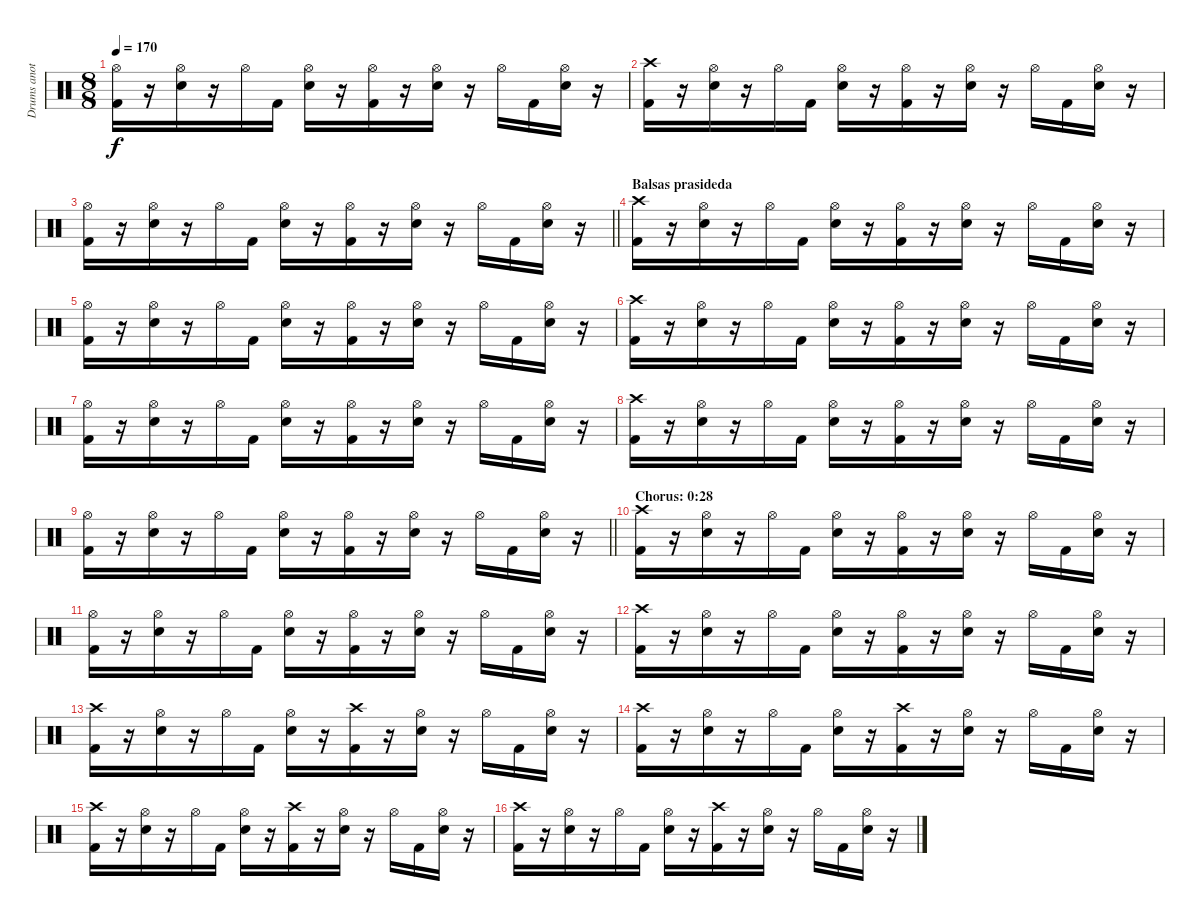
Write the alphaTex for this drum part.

\track ("Drums another version" "Drums anot") {mute instrument percussion}
\staff {score}
\articulation defaults
\ts (8 8)
\tempo 170
\clef neutral
\ks c
("Hi-Hat (open)" "Kick (hit) 2").16{dy f} r.16 ("Hi-Hat (open)" "Snare (hit) 2").16 r.16 "Hi-Hat (open)".16 "Kick (hit) 2".16 ("Hi-Hat (open)" "Snare (hit) 2").16 r.16 ("Hi-Hat (open)" "Kick (hit) 2").16 r.16 ("Hi-Hat (open)" "Snare (hit) 2").16 r.16 "Hi-Hat (open)".16 "Kick (hit) 2".16 ("Hi-Hat (open)" "Snare (hit) 2").16 r.16 |
("Crash high (hit)" "Kick (hit) 2").16 r.16 ("Hi-Hat (open)" "Snare (hit) 2").16 r.16 "Hi-Hat (open)".16 "Kick (hit) 2".16 ("Hi-Hat (open)" "Snare (hit) 2").16 r.16 ("Hi-Hat (open)" "Kick (hit) 2").16 r.16 ("Hi-Hat (open)" "Snare (hit) 2").16 r.16 "Hi-Hat (open)".16 "Kick (hit) 2".16 ("Hi-Hat (open)" "Snare (hit) 2").16 r.16 |
\barLineRight lightlight
("Hi-Hat (open)" "Kick (hit) 2").16 r.16 ("Hi-Hat (open)" "Snare (hit) 2").16 r.16 "Hi-Hat (open)".16 "Kick (hit) 2".16 ("Hi-Hat (open)" "Snare (hit) 2").16 r.16 ("Hi-Hat (open)" "Kick (hit) 2").16 r.16 ("Hi-Hat (open)" "Snare (hit) 2").16 r.16 "Hi-Hat (open)".16 "Kick (hit) 2".16 ("Hi-Hat (open)" "Snare (hit) 2").16 r.16 |
\section ("" "Balsas prasideda")
("Crash high (hit)" "Kick (hit) 2").16 r.16 ("Hi-Hat (open)" "Snare (hit) 2").16 r.16 "Hi-Hat (open)".16 "Kick (hit) 2".16 ("Hi-Hat (open)" "Snare (hit) 2").16 r.16 ("Hi-Hat (open)" "Kick (hit) 2").16 r.16 ("Hi-Hat (open)" "Snare (hit) 2").16 r.16 "Hi-Hat (open)".16 "Kick (hit) 2".16 ("Hi-Hat (open)" "Snare (hit) 2").16 r.16 |
("Hi-Hat (open)" "Kick (hit) 2").16 r.16 ("Hi-Hat (open)" "Snare (hit) 2").16 r.16 "Hi-Hat (open)".16 "Kick (hit) 2".16 ("Hi-Hat (open)" "Snare (hit) 2").16 r.16 ("Hi-Hat (open)" "Kick (hit) 2").16 r.16 ("Hi-Hat (open)" "Snare (hit) 2").16 r.16 "Hi-Hat (open)".16 "Kick (hit) 2".16 ("Hi-Hat (open)" "Snare (hit) 2").16 r.16 |
("Crash high (hit)" "Kick (hit) 2").16 r.16 ("Hi-Hat (open)" "Snare (hit) 2").16 r.16 "Hi-Hat (open)".16 "Kick (hit) 2".16 ("Hi-Hat (open)" "Snare (hit) 2").16 r.16 ("Hi-Hat (open)" "Kick (hit) 2").16 r.16 ("Hi-Hat (open)" "Snare (hit) 2").16 r.16 "Hi-Hat (open)".16 "Kick (hit) 2".16 ("Hi-Hat (open)" "Snare (hit) 2").16 r.16 |
("Hi-Hat (open)" "Kick (hit) 2").16 r.16 ("Hi-Hat (open)" "Snare (hit) 2").16 r.16 "Hi-Hat (open)".16 "Kick (hit) 2".16 ("Hi-Hat (open)" "Snare (hit) 2").16 r.16 ("Hi-Hat (open)" "Kick (hit) 2").16 r.16 ("Hi-Hat (open)" "Snare (hit) 2").16 r.16 "Hi-Hat (open)".16 "Kick (hit) 2".16 ("Hi-Hat (open)" "Snare (hit) 2").16 r.16 |
("Crash high (hit)" "Kick (hit) 2").16 r.16 ("Hi-Hat (open)" "Snare (hit) 2").16 r.16 "Hi-Hat (open)".16 "Kick (hit) 2".16 ("Hi-Hat (open)" "Snare (hit) 2").16 r.16 ("Hi-Hat (open)" "Kick (hit) 2").16 r.16 ("Hi-Hat (open)" "Snare (hit) 2").16 r.16 "Hi-Hat (open)".16 "Kick (hit) 2".16 ("Hi-Hat (open)" "Snare (hit) 2").16 r.16 |
\barLineRight lightlight
("Hi-Hat (open)" "Kick (hit) 2").16 r.16 ("Hi-Hat (open)" "Snare (hit) 2").16 r.16 "Hi-Hat (open)".16 "Kick (hit) 2".16 ("Hi-Hat (open)" "Snare (hit) 2").16 r.16 ("Hi-Hat (open)" "Kick (hit) 2").16 r.16 ("Hi-Hat (open)" "Snare (hit) 2").16 r.16 "Hi-Hat (open)".16 "Kick (hit) 2".16 ("Hi-Hat (open)" "Snare (hit) 2").16 r.16 |
\section ("" "Chorus: 0:28")
("Crash high (hit)" "Kick (hit) 2").16 r.16 ("Hi-Hat (open)" "Snare (hit) 2").16 r.16 "Hi-Hat (open)".16 "Kick (hit) 2".16 ("Hi-Hat (open)" "Snare (hit) 2").16 r.16 ("Hi-Hat (open)" "Kick (hit) 2").16 r.16 ("Hi-Hat (open)" "Snare (hit) 2").16 r.16 "Hi-Hat (open)".16 "Kick (hit) 2".16 ("Hi-Hat (open)" "Snare (hit) 2").16 r.16 |
("Hi-Hat (open)" "Kick (hit) 2").16 r.16 ("Hi-Hat (open)" "Snare (hit) 2").16 r.16 "Hi-Hat (open)".16 "Kick (hit) 2".16 ("Hi-Hat (open)" "Snare (hit) 2").16 r.16 ("Hi-Hat (open)" "Kick (hit) 2").16 r.16 ("Hi-Hat (open)" "Snare (hit) 2").16 r.16 "Hi-Hat (open)".16 "Kick (hit) 2".16 ("Hi-Hat (open)" "Snare (hit) 2").16 r.16 |
("Crash high (hit)" "Kick (hit) 2").16 r.16 ("Hi-Hat (open)" "Snare (hit) 2").16 r.16 "Hi-Hat (open)".16 "Kick (hit) 2".16 ("Hi-Hat (open)" "Snare (hit) 2").16 r.16 ("Hi-Hat (open)" "Kick (hit) 2").16 r.16 ("Hi-Hat (open)" "Snare (hit) 2").16 r.16 "Hi-Hat (open)".16 "Kick (hit) 2".16 ("Hi-Hat (open)" "Snare (hit) 2").16 r.16 |
("Crash high (hit)" "Kick (hit) 2").16 r.16 ("Hi-Hat (open)" "Snare (hit) 2").16 r.16 "Hi-Hat (open)".16 "Kick (hit) 2".16 ("Hi-Hat (open)" "Snare (hit) 2").16 r.16 ("Crash high (hit)" "Kick (hit) 2").16 r.16 ("Hi-Hat (open)" "Snare (hit) 2").16 r.16 "Hi-Hat (open)".16 "Kick (hit) 2".16 ("Hi-Hat (open)" "Snare (hit) 2").16 r.16 |
("Crash high (hit)" "Kick (hit) 2").16 r.16 ("Hi-Hat (open)" "Snare (hit) 2").16 r.16 "Hi-Hat (open)".16 "Kick (hit) 2".16 ("Hi-Hat (open)" "Snare (hit) 2").16 r.16 ("Crash high (hit)" "Kick (hit) 2").16 r.16 ("Hi-Hat (open)" "Snare (hit) 2").16 r.16 "Hi-Hat (open)".16 "Kick (hit) 2".16 ("Hi-Hat (open)" "Snare (hit) 2").16 r.16 |
("Crash high (hit)" "Kick (hit) 2").16 r.16 ("Hi-Hat (open)" "Snare (hit) 2").16 r.16 "Hi-Hat (open)".16 "Kick (hit) 2".16 ("Hi-Hat (open)" "Snare (hit) 2").16 r.16 ("Crash high (hit)" "Kick (hit) 2").16 r.16 ("Hi-Hat (open)" "Snare (hit) 2").16 r.16 "Hi-Hat (open)".16 "Kick (hit) 2".16 ("Hi-Hat (open)" "Snare (hit) 2").16 r.16 |
("Crash high (hit)" "Kick (hit) 2").16 r.16 ("Hi-Hat (open)" "Snare (hit) 2").16 r.16 "Hi-Hat (open)".16 "Kick (hit) 2".16 ("Hi-Hat (open)" "Snare (hit) 2").16 r.16 ("Crash high (hit)" "Kick (hit) 2").16 r.16 ("Hi-Hat (open)" "Snare (hit) 2").16 r.16 "Hi-Hat (open)".16 "Kick (hit) 2".16 ("Hi-Hat (open)" "Snare (hit) 2").16 r.16
